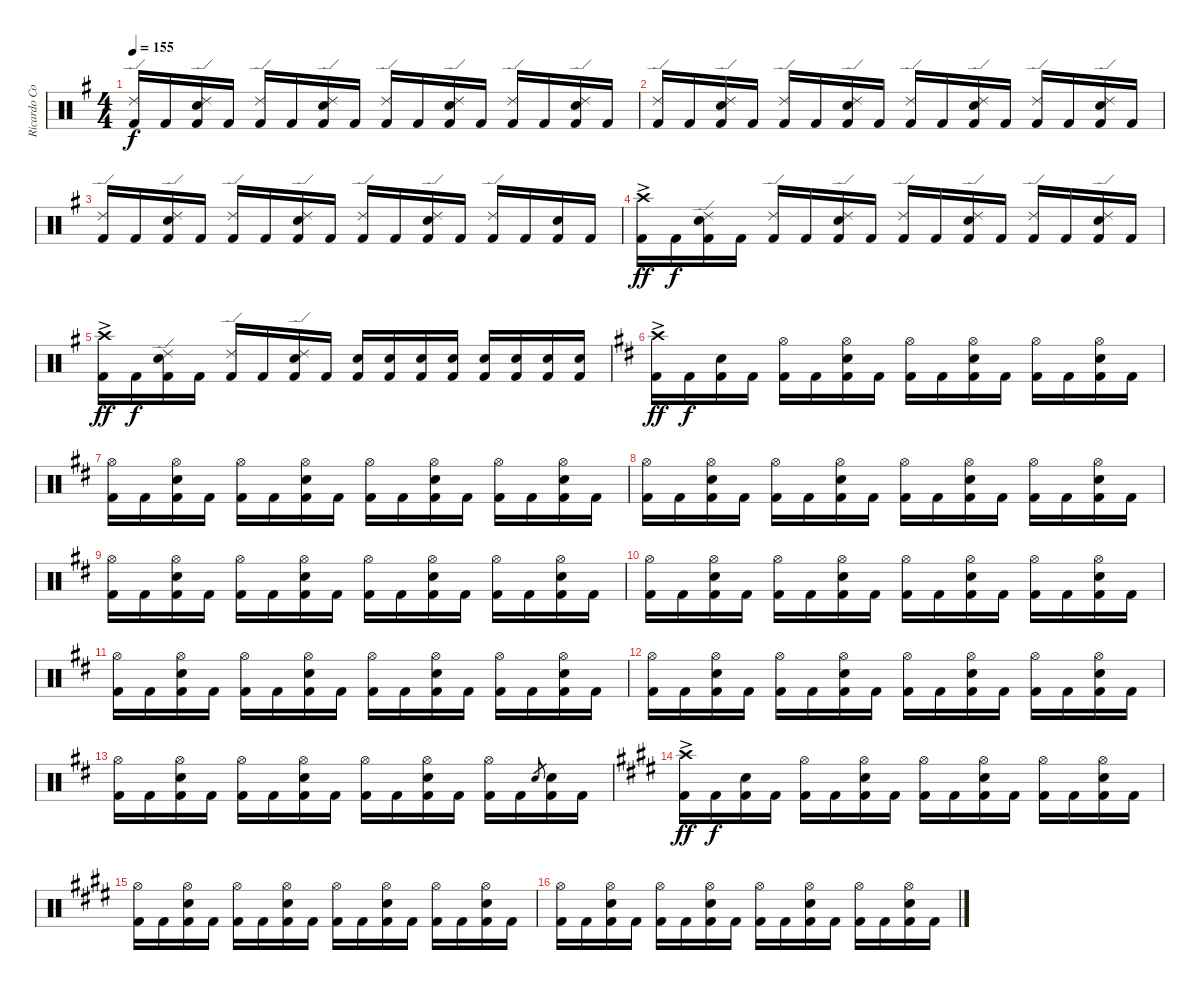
\track ("Ricardo Confessori" "Ricardo Co") {instrument percussion}
\staff {score}
\articulation defaults
\ts (4 4)
\tempo 155
\clef neutral
\ks g
("Ride (edge) 2" "Kick (hit) 2").16{dy f} "Kick (hit) 2".16 ("Kick (hit) 2" "Electric Snare (hit)" "Ride (edge) 2").16 "Kick (hit) 2".16 ("Kick (hit) 2" "Ride (edge) 2").16 "Kick (hit) 2".16 ("Kick (hit) 2" "Ride (edge) 2" "Electric Snare (hit)").16 "Kick (hit) 2".16 ("Kick (hit) 2" "Ride (edge) 2").16 "Kick (hit) 2".16 ("Kick (hit) 2" "Ride (edge) 2" "Electric Snare (hit)").16 "Kick (hit) 2".16 ("Kick (hit) 2" "Ride (edge) 2").16 "Kick (hit) 2".16 ("Kick (hit) 2" "Ride (edge) 2" "Electric Snare (hit)").16 "Kick (hit) 2".16 |
("Ride (edge) 2" "Kick (hit) 2").16 "Kick (hit) 2".16 ("Kick (hit) 2" "Electric Snare (hit)" "Ride (edge) 2").16 "Kick (hit) 2".16 ("Kick (hit) 2" "Ride (edge) 2").16 "Kick (hit) 2".16 ("Kick (hit) 2" "Ride (edge) 2" "Electric Snare (hit)").16 "Kick (hit) 2".16 ("Kick (hit) 2" "Ride (edge) 2").16 "Kick (hit) 2".16 ("Kick (hit) 2" "Ride (edge) 2" "Electric Snare (hit)").16 "Kick (hit) 2".16 ("Kick (hit) 2" "Ride (edge) 2").16 "Kick (hit) 2".16 ("Kick (hit) 2" "Ride (edge) 2" "Electric Snare (hit)").16 "Kick (hit) 2".16 |
("Ride (edge) 2" "Kick (hit) 2").16 "Kick (hit) 2".16 ("Kick (hit) 2" "Electric Snare (hit)" "Ride (edge) 2").16 "Kick (hit) 2".16 ("Kick (hit) 2" "Ride (edge) 2").16 "Kick (hit) 2".16 ("Kick (hit) 2" "Ride (edge) 2" "Electric Snare (hit)").16 "Kick (hit) 2".16 ("Kick (hit) 2" "Ride (edge) 2").16 "Kick (hit) 2".16 ("Kick (hit) 2" "Ride (edge) 2" "Electric Snare (hit)").16 "Kick (hit) 2".16 ("Kick (hit) 2" "Ride (edge) 2").16 "Kick (hit) 2".16 ("Kick (hit) 2" "Electric Snare (hit)").16 "Kick (hit) 2".16 |
("Crash high (hit)"{ac} "Kick (hit) 2"{ac}).16{dy ff} "Kick (hit) 2".16{dy f} ("Kick (hit) 2" "Electric Snare (hit)" "Ride (edge) 2").16 "Kick (hit) 2".16 ("Kick (hit) 2" "Ride (edge) 2").16 "Kick (hit) 2".16 ("Kick (hit) 2" "Ride (edge) 2" "Electric Snare (hit)").16 "Kick (hit) 2".16 ("Kick (hit) 2" "Ride (edge) 2").16 "Kick (hit) 2".16 ("Kick (hit) 2" "Ride (edge) 2" "Electric Snare (hit)").16 "Kick (hit) 2".16 ("Kick (hit) 2" "Ride (edge) 2").16 "Kick (hit) 2".16 ("Kick (hit) 2" "Ride (edge) 2" "Electric Snare (hit)").16 "Kick (hit) 2".16 |
("Crash high (hit)"{ac} "Kick (hit) 2"{ac}).16{dy ff} "Kick (hit) 2".16{dy f} ("Kick (hit) 2" "Electric Snare (hit)" "Ride (edge) 2").16 "Kick (hit) 2".16 ("Kick (hit) 2" "Ride (edge) 2").16 "Kick (hit) 2".16 ("Kick (hit) 2" "Ride (edge) 2" "Electric Snare (hit)").16 "Kick (hit) 2".16 ("Kick (hit) 2" "Electric Snare (hit)").16 ("Kick (hit) 2" "Electric Snare (hit)").16 ("Kick (hit) 2" "Electric Snare (hit)").16 ("Kick (hit) 2" "Electric Snare (hit)").16 ("Kick (hit) 2" "Electric Snare (hit)").16 ("Kick (hit) 2" "Electric Snare (hit)").16 ("Kick (hit) 2" "Electric Snare (hit)").16 ("Kick (hit) 2" "Electric Snare (hit)").16 |
\ks d
("Crash high (hit)"{ac} "Kick (hit) 2"{ac}).16{dy ff} "Kick (hit) 2".16{dy f} ("Electric Snare (hit)" "Kick (hit) 2").16 "Kick (hit) 2".16 ("Kick (hit) 2" "Hi-Hat (open)").16 "Kick (hit) 2".16 ("Kick (hit) 2" "Hi-Hat (open)" "Electric Snare (hit)").16 "Kick (hit) 2".16 ("Kick (hit) 2" "Hi-Hat (open)").16 "Kick (hit) 2".16 ("Kick (hit) 2" "Hi-Hat (open)" "Electric Snare (hit)").16 "Kick (hit) 2".16 ("Kick (hit) 2" "Hi-Hat (open)").16 "Kick (hit) 2".16 ("Kick (hit) 2" "Hi-Hat (open)" "Electric Snare (hit)").16 "Kick (hit) 2".16 |
("Hi-Hat (open)" "Kick (hit) 2").16 "Kick (hit) 2".16 ("Electric Snare (hit)" "Kick (hit) 2" "Hi-Hat (open)").16 "Kick (hit) 2".16 ("Kick (hit) 2" "Hi-Hat (open)").16 "Kick (hit) 2".16 ("Kick (hit) 2" "Hi-Hat (open)" "Electric Snare (hit)").16 "Kick (hit) 2".16 ("Kick (hit) 2" "Hi-Hat (open)").16 "Kick (hit) 2".16 ("Kick (hit) 2" "Hi-Hat (open)" "Electric Snare (hit)").16 "Kick (hit) 2".16 ("Kick (hit) 2" "Hi-Hat (open)").16 "Kick (hit) 2".16 ("Kick (hit) 2" "Hi-Hat (open)" "Electric Snare (hit)").16 "Kick (hit) 2".16 |
("Hi-Hat (open)" "Kick (hit) 2").16 "Kick (hit) 2".16 ("Electric Snare (hit)" "Kick (hit) 2" "Hi-Hat (open)").16 "Kick (hit) 2".16 ("Kick (hit) 2" "Hi-Hat (open)").16 "Kick (hit) 2".16 ("Kick (hit) 2" "Hi-Hat (open)" "Electric Snare (hit)").16 "Kick (hit) 2".16 ("Kick (hit) 2" "Hi-Hat (open)").16 "Kick (hit) 2".16 ("Kick (hit) 2" "Hi-Hat (open)" "Electric Snare (hit)").16 "Kick (hit) 2".16 ("Kick (hit) 2" "Hi-Hat (open)").16 "Kick (hit) 2".16 ("Kick (hit) 2" "Hi-Hat (open)" "Electric Snare (hit)").16 "Kick (hit) 2".16 |
("Hi-Hat (open)" "Kick (hit) 2").16 "Kick (hit) 2".16 ("Electric Snare (hit)" "Kick (hit) 2" "Hi-Hat (open)").16 "Kick (hit) 2".16 ("Kick (hit) 2" "Hi-Hat (open)").16 "Kick (hit) 2".16 ("Kick (hit) 2" "Hi-Hat (open)" "Electric Snare (hit)").16 "Kick (hit) 2".16 ("Kick (hit) 2" "Hi-Hat (open)").16 "Kick (hit) 2".16 ("Kick (hit) 2" "Hi-Hat (open)" "Electric Snare (hit)").16 "Kick (hit) 2".16 ("Kick (hit) 2" "Hi-Hat (open)").16 "Kick (hit) 2".16 ("Kick (hit) 2" "Hi-Hat (open)" "Electric Snare (hit)").16 "Kick (hit) 2".16 |
("Hi-Hat (open)" "Kick (hit) 2").16 "Kick (hit) 2".16 ("Electric Snare (hit)" "Kick (hit) 2" "Hi-Hat (open)").16 "Kick (hit) 2".16 ("Kick (hit) 2" "Hi-Hat (open)").16 "Kick (hit) 2".16 ("Kick (hit) 2" "Hi-Hat (open)" "Electric Snare (hit)").16 "Kick (hit) 2".16 ("Kick (hit) 2" "Hi-Hat (open)").16 "Kick (hit) 2".16 ("Kick (hit) 2" "Hi-Hat (open)" "Electric Snare (hit)").16 "Kick (hit) 2".16 ("Kick (hit) 2" "Hi-Hat (open)").16 "Kick (hit) 2".16 ("Kick (hit) 2" "Hi-Hat (open)" "Electric Snare (hit)").16 "Kick (hit) 2".16 |
("Hi-Hat (open)" "Kick (hit) 2").16 "Kick (hit) 2".16 ("Electric Snare (hit)" "Kick (hit) 2" "Hi-Hat (open)").16 "Kick (hit) 2".16 ("Kick (hit) 2" "Hi-Hat (open)").16 "Kick (hit) 2".16 ("Kick (hit) 2" "Hi-Hat (open)" "Electric Snare (hit)").16 "Kick (hit) 2".16 ("Kick (hit) 2" "Hi-Hat (open)").16 "Kick (hit) 2".16 ("Kick (hit) 2" "Hi-Hat (open)" "Electric Snare (hit)").16 "Kick (hit) 2".16 ("Kick (hit) 2" "Hi-Hat (open)").16 "Kick (hit) 2".16 ("Kick (hit) 2" "Hi-Hat (open)" "Electric Snare (hit)").16 "Kick (hit) 2".16 |
("Hi-Hat (open)" "Kick (hit) 2").16 "Kick (hit) 2".16 ("Electric Snare (hit)" "Kick (hit) 2" "Hi-Hat (open)").16 "Kick (hit) 2".16 ("Kick (hit) 2" "Hi-Hat (open)").16 "Kick (hit) 2".16 ("Kick (hit) 2" "Hi-Hat (open)" "Electric Snare (hit)").16 "Kick (hit) 2".16 ("Kick (hit) 2" "Hi-Hat (open)").16 "Kick (hit) 2".16 ("Kick (hit) 2" "Hi-Hat (open)" "Electric Snare (hit)").16 "Kick (hit) 2".16 ("Kick (hit) 2" "Hi-Hat (open)").16 "Kick (hit) 2".16 ("Kick (hit) 2" "Hi-Hat (open)" "Electric Snare (hit)").16 "Kick (hit) 2".16 |
("Hi-Hat (open)" "Kick (hit) 2").16 "Kick (hit) 2".16 ("Electric Snare (hit)" "Kick (hit) 2" "Hi-Hat (open)").16 "Kick (hit) 2".16 ("Kick (hit) 2" "Hi-Hat (open)").16 "Kick (hit) 2".16 ("Kick (hit) 2" "Hi-Hat (open)" "Electric Snare (hit)").16 "Kick (hit) 2".16 ("Kick (hit) 2" "Hi-Hat (open)").16 "Kick (hit) 2".16 ("Kick (hit) 2" "Hi-Hat (open)" "Electric Snare (hit)").16 "Kick (hit) 2".16 ("Kick (hit) 2" "Hi-Hat (open)").16 "Kick (hit) 2".16 "Electric Snare (hit)".8{gr} ("Kick (hit) 2" "Electric Snare (hit)").16 "Kick (hit) 2".16 |
\ks e
("Crash high (hit)"{ac} "Kick (hit) 2"{ac}).16{dy ff} "Kick (hit) 2".16{dy f} ("Electric Snare (hit)" "Kick (hit) 2").16 "Kick (hit) 2".16 ("Kick (hit) 2" "Hi-Hat (open)").16 "Kick (hit) 2".16 ("Kick (hit) 2" "Hi-Hat (open)" "Electric Snare (hit)").16 "Kick (hit) 2".16 ("Kick (hit) 2" "Hi-Hat (open)").16 "Kick (hit) 2".16 ("Kick (hit) 2" "Hi-Hat (open)" "Electric Snare (hit)").16 "Kick (hit) 2".16 ("Kick (hit) 2" "Hi-Hat (open)").16 "Kick (hit) 2".16 ("Kick (hit) 2" "Hi-Hat (open)" "Electric Snare (hit)").16 "Kick (hit) 2".16 |
("Hi-Hat (open)" "Kick (hit) 2").16 "Kick (hit) 2".16 ("Electric Snare (hit)" "Kick (hit) 2" "Hi-Hat (open)").16 "Kick (hit) 2".16 ("Kick (hit) 2" "Hi-Hat (open)").16 "Kick (hit) 2".16 ("Kick (hit) 2" "Hi-Hat (open)" "Electric Snare (hit)").16 "Kick (hit) 2".16 ("Kick (hit) 2" "Hi-Hat (open)").16 "Kick (hit) 2".16 ("Kick (hit) 2" "Hi-Hat (open)" "Electric Snare (hit)").16 "Kick (hit) 2".16 ("Kick (hit) 2" "Hi-Hat (open)").16 "Kick (hit) 2".16 ("Kick (hit) 2" "Hi-Hat (open)" "Electric Snare (hit)").16 "Kick (hit) 2".16 |
("Hi-Hat (open)" "Kick (hit) 2").16 "Kick (hit) 2".16 ("Electric Snare (hit)" "Kick (hit) 2" "Hi-Hat (open)").16 "Kick (hit) 2".16 ("Kick (hit) 2" "Hi-Hat (open)").16 "Kick (hit) 2".16 ("Kick (hit) 2" "Hi-Hat (open)" "Electric Snare (hit)").16 "Kick (hit) 2".16 ("Kick (hit) 2" "Hi-Hat (open)").16 "Kick (hit) 2".16 ("Kick (hit) 2" "Hi-Hat (open)" "Electric Snare (hit)").16 "Kick (hit) 2".16 ("Kick (hit) 2" "Hi-Hat (open)").16 "Kick (hit) 2".16 ("Kick (hit) 2" "Hi-Hat (open)" "Electric Snare (hit)").16 "Kick (hit) 2".16
